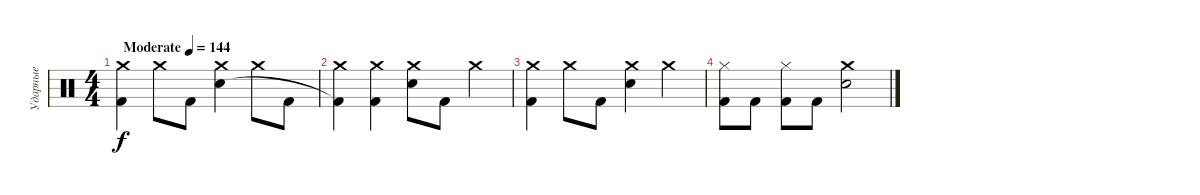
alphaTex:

\track ("Ударные" "Ударные") {instrument percussion}
\staff {score}
\articulation defaults
\ts (4 4)
\tempo (144 "Moderate")
\clef neutral
\ks c
("Crash medium (hit)" "Kick (hit) 2").4{dy f} "Crash medium (hit)".8 "Kick (hit) 2".8 ("Crash medium (hit)" "Snare (hit) 2").4 "Crash medium (hit)".8 "Kick (hit) 2".8 |
("Crash medium (hit)" "Kick (hit) 2"{t}).4 ("Crash medium (hit)" "Kick (hit) 2").4 ("Crash medium (hit)" "Snare (hit) 2").8 "Kick (hit) 2".8 "Crash medium (hit)".4 |
("Crash medium (hit)" "Kick (hit) 2").4 "Crash medium (hit)".8 "Kick (hit) 2".8 ("Crash medium (hit)" "Snare (hit) 2").4 "Crash medium (hit)".4 |
("Hi-Hat (closed)" "Kick (hit) 2").8 "Kick (hit) 2".8 ("Hi-Hat (closed)" "Kick (hit) 2").8 "Kick (hit) 2".8 ("Crash medium (hit)" "Snare (hit) 2").2
